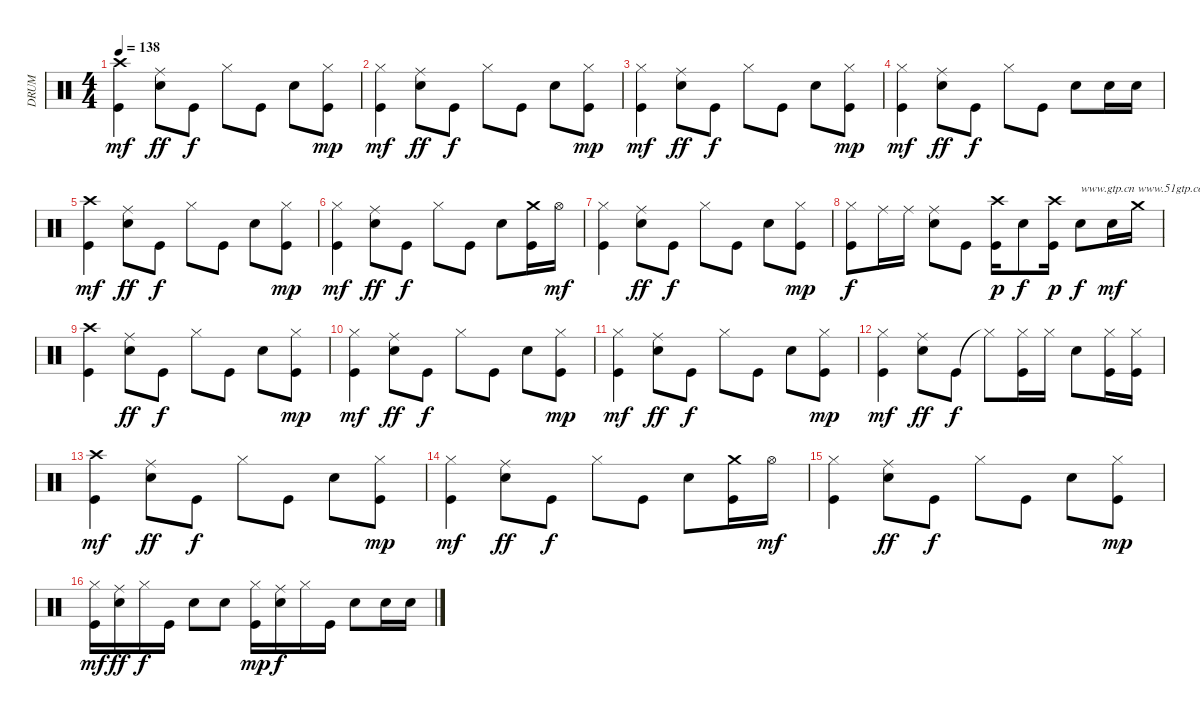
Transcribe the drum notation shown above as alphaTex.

\track ("DRUM" "DRUM") {instrument percussion}
\staff {score}
\articulation defaults
\ts (4 4)
\tempo 138
\clef neutral
\ks c
("Crash high (hit)" "Kick (hit)").4{dy mf} ("Ride (middle)" "Snare (hit) 2").8{dy ff} "Kick (hit)".8{dy f} "Hi-Hat (closed)".8 "Kick (hit)".8 "Snare (hit) 2".8 ("Hi-Hat (closed)" "Kick (hit)").8{dy mp} |
("Hi-Hat (closed)" "Kick (hit)").4{dy mf} ("Ride (middle)" "Snare (hit) 2").8{dy ff} "Kick (hit)".8{dy f} "Hi-Hat (closed)".8 "Kick (hit)".8 "Snare (hit) 2".8 ("Hi-Hat (closed)" "Kick (hit)").8{dy mp} |
("Hi-Hat (closed)" "Kick (hit)").4{dy mf} ("Ride (middle)" "Snare (hit) 2").8{dy ff} "Kick (hit)".8{dy f} "Hi-Hat (closed)".8 "Kick (hit)".8 "Snare (hit) 2".8 ("Hi-Hat (closed)" "Kick (hit)").8{dy mp} |
("Hi-Hat (closed)" "Kick (hit)").4{dy mf} ("Ride (middle)" "Snare (hit) 2").8{dy ff} "Kick (hit)".8{dy f} "Hi-Hat (closed)".8 "Kick (hit)".8 "Snare (hit) 2".8 "Snare (hit) 2".16 "Snare (hit) 2".16 |
("Crash high (hit)" "Kick (hit)").4{dy mf} ("Ride (middle)" "Snare (hit) 2").8{dy ff} "Kick (hit)".8{dy f} "Hi-Hat (closed)".8 "Kick (hit)".8 "Snare (hit) 2".8 ("Hi-Hat (closed)" "Kick (hit)").8{dy mp} |
("Hi-Hat (closed)" "Kick (hit)").4{dy mf} ("Ride (middle)" "Snare (hit) 2").8{dy ff} "Kick (hit)".8{dy f} "Hi-Hat (closed)".8 "Kick (hit)".8 "Snare (hit) 2".8 ("Crash medium (hit)" "Kick (hit)").16 "Hi-Hat (open)".16{dy mf} |
("Hi-Hat (closed)" "Kick (hit)").4 ("Ride (middle)" "Snare (hit) 2").8{dy ff} "Kick (hit)".8{dy f} "Hi-Hat (closed)".8 "Kick (hit)".8 "Snare (hit) 2".8 ("Hi-Hat (closed)" "Kick (hit)").8{dy mp} |
("Hi-Hat (closed)" "Kick (hit)").8{dy f} "Ride (middle)".16 "Ride (middle)".16 ("Snare (hit) 2" "Ride (middle)").8 "Kick (hit)".8 ("Kick (hit)" "Crash high (hit)").16{dy p} "Snare (hit) 2".8{dy f} ("Kick (hit)" "Crash high (hit)").16{dy p} "Snare (hit) 2".8{txt "www.gtp.cn www.51gtp.com联合为您提供优秀的GTP!" dy f} "Snare (hit) 2".16{dy mf} "Crash medium (hit)".16 |
("Crash high (hit)" "Kick (hit)").4 ("Ride (middle)" "Snare (hit) 2").8{dy ff} "Kick (hit)".8{dy f} "Hi-Hat (closed)".8 "Kick (hit)".8 "Snare (hit) 2".8 ("Hi-Hat (closed)" "Kick (hit)").8{dy mp} |
("Hi-Hat (closed)" "Kick (hit)").4{dy mf} ("Ride (middle)" "Snare (hit) 2").8{dy ff} "Kick (hit)".8{dy f} "Hi-Hat (closed)".8 "Kick (hit)".8 "Snare (hit) 2".8 ("Hi-Hat (closed)" "Kick (hit)").8{dy mp} |
("Hi-Hat (closed)" "Kick (hit)").4{dy mf} ("Ride (middle)" "Snare (hit) 2").8{dy ff} "Kick (hit)".8{dy f} "Hi-Hat (closed)".8 "Kick (hit)".8 "Snare (hit) 2".8 ("Hi-Hat (closed)" "Kick (hit)").8{dy mp} |
("Hi-Hat (closed)" "Kick (hit)").4{dy mf} ("Ride (middle)" "Snare (hit) 2").8{dy ff} "Kick (hit)".8{dy f} "Hi-Hat (closed)"{t}.8 ("Hi-Hat (closed)" "Kick (hit)").16 "Hi-Hat (closed)".16 "Snare (hit) 2".8 ("Hi-Hat (closed)" "Kick (hit)").16 ("Hi-Hat (closed)" "Kick (hit)").16 |
("Crash high (hit)" "Kick (hit)").4{dy mf} ("Ride (middle)" "Snare (hit) 2").8{dy ff} "Kick (hit)".8{dy f} "Hi-Hat (closed)".8 "Kick (hit)".8 "Snare (hit) 2".8 ("Hi-Hat (closed)" "Kick (hit)").8{dy mp} |
("Hi-Hat (closed)" "Kick (hit)").4{dy mf} ("Ride (middle)" "Snare (hit) 2").8{dy ff} "Kick (hit)".8{dy f} "Hi-Hat (closed)".8 "Kick (hit)".8 "Snare (hit) 2".8 ("Crash medium (hit)" "Kick (hit)").16 "Hi-Hat (open)".16{dy mf} |
("Hi-Hat (closed)" "Kick (hit)").4 ("Ride (middle)" "Snare (hit) 2").8{dy ff} "Kick (hit)".8{dy f} "Hi-Hat (closed)".8 "Kick (hit)".8 "Snare (hit) 2".8 ("Hi-Hat (closed)" "Kick (hit)").8{dy mp} |
("Hi-Hat (closed)" "Kick (hit)").16{dy mf} ("Ride (middle)" "Snare (hit) 2").16{dy ff} "Hi-Hat (closed)".16{dy f} "Kick (hit)".16 "Snare (hit) 2".8 "Snare (hit) 2".8 ("Hi-Hat (closed)" "Kick (hit)").16{dy mp} ("Ride (middle)" "Snare (hit) 2").16{dy f} "Hi-Hat (closed)".16 "Kick (hit)".16 "Snare (hit) 2".8 "Snare (hit) 2".16 "Snare (hit) 2".16
